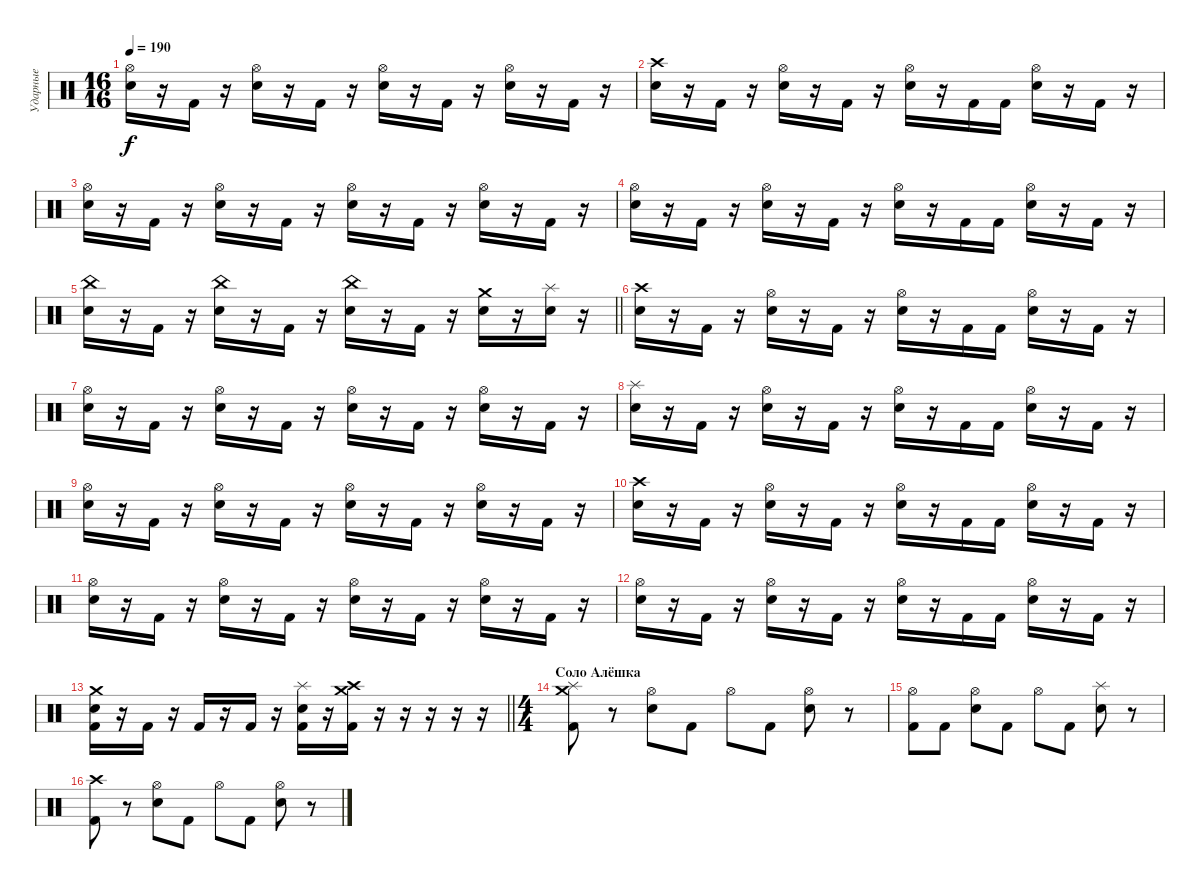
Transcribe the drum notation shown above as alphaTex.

\track ("Ударные" "Ударные") {instrument percussion}
\staff {score}
\articulation defaults
\ts (16 16)
\tempo 190
\clef neutral
\ks c
("Electric Snare (hit)" "Hi-Hat (open)").16{dy f} r.16 "Kick (hit) 2".16 r.16 ("Electric Snare (hit)" "Hi-Hat (open)").16 r.16 "Kick (hit) 2".16 r.16 ("Electric Snare (hit)" "Hi-Hat (open)").16 r.16 "Kick (hit) 2".16 r.16 ("Electric Snare (hit)" "Hi-Hat (open)").16 r.16 "Kick (hit) 2".16 r.16 |
("Electric Snare (hit)" "Crash high (hit)").16 r.16 "Kick (hit) 2".16 r.16 ("Electric Snare (hit)" "Hi-Hat (open)").16 r.16 "Kick (hit) 2".16 r.16 ("Electric Snare (hit)" "Hi-Hat (open)").16 r.16 "Kick (hit) 2".16 "Kick (hit) 2".16 ("Electric Snare (hit)" "Hi-Hat (open)").16 r.16 "Kick (hit) 2".16 r.16 |
("Electric Snare (hit)" "Hi-Hat (open)").16 r.16 "Kick (hit) 2".16 r.16 ("Electric Snare (hit)" "Hi-Hat (open)").16 r.16 "Kick (hit) 2".16 r.16 ("Electric Snare (hit)" "Hi-Hat (open)").16 r.16 "Kick (hit) 2".16 r.16 ("Electric Snare (hit)" "Hi-Hat (open)").16 r.16 "Kick (hit) 2".16 r.16 |
("Electric Snare (hit)" "Hi-Hat (open)").16 r.16 "Kick (hit) 2".16 r.16 ("Electric Snare (hit)" "Hi-Hat (open)").16 r.16 "Kick (hit) 2".16 r.16 ("Electric Snare (hit)" "Hi-Hat (open)").16 r.16 "Kick (hit) 2".16 "Kick (hit) 2".16 ("Electric Snare (hit)" "Hi-Hat (open)").16 r.16 "Kick (hit) 2".16 r.16 |
\barLineRight lightlight
("Electric Snare (hit)" "China (hit)").16 r.16 "Kick (hit) 2".16 r.16 ("Electric Snare (hit)" "China (hit)").16 r.16 "Kick (hit) 2".16 r.16 ("Electric Snare (hit)" "China (hit)").16 r.16 "Kick (hit) 2".16 r.16 ("Electric Snare (hit)" "Crash medium (hit)").16 r.16 ("Electric Snare (hit)" "Splash (hit)").16 r.16 |
("Electric Snare (hit)" "Crash high (hit)").16 r.16 "Kick (hit) 2".16 r.16 ("Electric Snare (hit)" "Hi-Hat (open)").16 r.16 "Kick (hit) 2".16 r.16 ("Electric Snare (hit)" "Hi-Hat (open)").16 r.16 "Kick (hit) 2".16 "Kick (hit) 2".16 ("Electric Snare (hit)" "Hi-Hat (open)").16 r.16 "Kick (hit) 2".16 r.16 |
("Electric Snare (hit)" "Hi-Hat (open)").16 r.16 "Kick (hit) 2".16 r.16 ("Electric Snare (hit)" "Hi-Hat (open)").16 r.16 "Kick (hit) 2".16 r.16 ("Electric Snare (hit)" "Hi-Hat (open)").16 r.16 "Kick (hit) 2".16 r.16 ("Electric Snare (hit)" "Hi-Hat (open)").16 r.16 "Kick (hit) 2".16 r.16 |
("Electric Snare (hit)" "Splash (hit)").16 r.16 "Kick (hit) 2".16 r.16 ("Electric Snare (hit)" "Hi-Hat (open)").16 r.16 "Kick (hit) 2".16 r.16 ("Electric Snare (hit)" "Hi-Hat (open)").16 r.16 "Kick (hit) 2".16 "Kick (hit) 2".16 ("Electric Snare (hit)" "Hi-Hat (open)").16 r.16 "Kick (hit) 2".16 r.16 |
("Electric Snare (hit)" "Hi-Hat (open)").16 r.16 "Kick (hit) 2".16 r.16 ("Electric Snare (hit)" "Hi-Hat (open)").16 r.16 "Kick (hit) 2".16 r.16 ("Electric Snare (hit)" "Hi-Hat (open)").16 r.16 "Kick (hit) 2".16 r.16 ("Electric Snare (hit)" "Hi-Hat (open)").16 r.16 "Kick (hit) 2".16 r.16 |
("Electric Snare (hit)" "Crash high (hit)").16 r.16 "Kick (hit) 2".16 r.16 ("Electric Snare (hit)" "Hi-Hat (open)").16 r.16 "Kick (hit) 2".16 r.16 ("Electric Snare (hit)" "Hi-Hat (open)").16 r.16 "Kick (hit) 2".16 "Kick (hit) 2".16 ("Electric Snare (hit)" "Hi-Hat (open)").16 r.16 "Kick (hit) 2".16 r.16 |
("Electric Snare (hit)" "Hi-Hat (open)").16 r.16 "Kick (hit) 2".16 r.16 ("Electric Snare (hit)" "Hi-Hat (open)").16 r.16 "Kick (hit) 2".16 r.16 ("Electric Snare (hit)" "Hi-Hat (open)").16 r.16 "Kick (hit) 2".16 r.16 ("Electric Snare (hit)" "Hi-Hat (open)").16 r.16 "Kick (hit) 2".16 r.16 |
("Electric Snare (hit)" "Hi-Hat (open)").16 r.16 "Kick (hit) 2".16 r.16 ("Electric Snare (hit)" "Hi-Hat (open)").16 r.16 "Kick (hit) 2".16 r.16 ("Electric Snare (hit)" "Hi-Hat (open)").16 r.16 "Kick (hit) 2".16 "Kick (hit) 2".16 ("Electric Snare (hit)" "Hi-Hat (open)").16 r.16 "Kick (hit) 2".16 r.16 |
\barLineRight lightlight
("Kick (hit) 2" "Electric Snare (hit)" "Crash medium (hit)").16 r.16 "Kick (hit) 2".16 r.16 "Kick (hit) 2".16 r.16 "Kick (hit) 2".16 r.16 ("Kick (hit) 2" "Electric Snare (hit)" "Splash (hit)").16 r.16 ("Kick (hit) 2" "Crash high (hit)" "Crash medium (hit)").16 r.16 r.16 r.16 r.16 r.16 |
\ts (4 4)
\section ("" "Соло Алёшка")
("Kick (hit) 2" "Splash (hit)" "Crash medium (hit)").8 r.8 ("Electric Snare (hit)" "Hi-Hat (open)").8 "Kick (hit) 2".8 "Hi-Hat (open)".8 "Kick (hit) 2".8 ("Electric Snare (hit)" "Hi-Hat (open)").8 r.8 |
("Kick (hit) 2" "Hi-Hat (open)").8 "Kick (hit) 2".8 ("Electric Snare (hit)" "Hi-Hat (open)").8 "Kick (hit) 2".8 "Hi-Hat (open)".8 "Kick (hit) 2".8 ("Electric Snare (hit)" "Splash (hit)").8 r.8 |
("Kick (hit) 2" "Crash high (hit)").8 r.8 ("Electric Snare (hit)" "Hi-Hat (open)").8 "Kick (hit) 2".8 "Hi-Hat (open)".8 "Kick (hit) 2".8 ("Electric Snare (hit)" "Hi-Hat (open)").8 r.8
